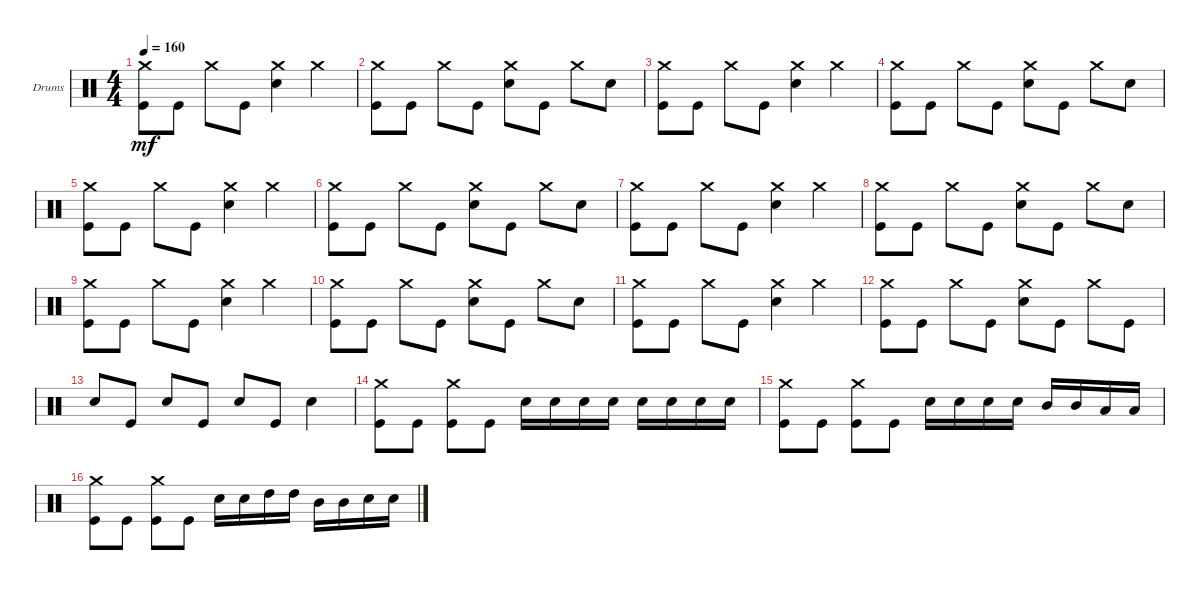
\bracketExtendMode groupsimilarinstruments
\firstSystemTrackNameOrientation horizontal
\otherSystemsTrackNameOrientation horizontal
\track ("Drums" "Drums") {instrument percussion}
\staff {score}
\articulation defaults
\ts (4 4)
\tempo 160
\clef neutral
\ks c
("Kick (hit)" "Crash medium (hit)").8{dy mf} "Kick (hit)".8 "Crash medium (hit)".8 "Kick (hit)".8 ("Snare (hit) 2" "Crash medium (hit)").4 "Crash medium (hit)".4 |
("Kick (hit)" "Crash medium (hit)").8 "Kick (hit)".8 "Crash medium (hit)".8 "Kick (hit)".8 ("Snare (hit) 2" "Crash medium (hit)").8 "Kick (hit)".8 "Crash medium (hit)".8 "Snare (hit) 2".8 |
("Kick (hit)" "Crash medium (hit)").8 "Kick (hit)".8 "Crash medium (hit)".8 "Kick (hit)".8 ("Snare (hit) 2" "Crash medium (hit)").4 "Crash medium (hit)".4 |
("Kick (hit)" "Crash medium (hit)").8 "Kick (hit)".8 "Crash medium (hit)".8 "Kick (hit)".8 ("Snare (hit) 2" "Crash medium (hit)").8 "Kick (hit)".8 "Crash medium (hit)".8 "Snare (hit) 2".8 |
("Kick (hit)" "Crash medium (hit)").8 "Kick (hit)".8 "Crash medium (hit)".8 "Kick (hit)".8 ("Snare (hit) 2" "Crash medium (hit)").4 "Crash medium (hit)".4 |
("Kick (hit)" "Crash medium (hit)").8 "Kick (hit)".8 "Crash medium (hit)".8 "Kick (hit)".8 ("Snare (hit) 2" "Crash medium (hit)").8 "Kick (hit)".8 "Crash medium (hit)".8 "Snare (hit) 2".8 |
("Kick (hit)" "Crash medium (hit)").8 "Kick (hit)".8 "Crash medium (hit)".8 "Kick (hit)".8 ("Snare (hit) 2" "Crash medium (hit)").4 "Crash medium (hit)".4 |
("Kick (hit)" "Crash medium (hit)").8 "Kick (hit)".8 "Crash medium (hit)".8 "Kick (hit)".8 ("Snare (hit) 2" "Crash medium (hit)").8 "Kick (hit)".8 "Crash medium (hit)".8 "Snare (hit) 2".8 |
("Kick (hit)" "Crash medium (hit)").8 "Kick (hit)".8 "Crash medium (hit)".8 "Kick (hit)".8 ("Snare (hit) 2" "Crash medium (hit)").4 "Crash medium (hit)".4 |
("Kick (hit)" "Crash medium (hit)").8 "Kick (hit)".8 "Crash medium (hit)".8 "Kick (hit)".8 ("Snare (hit) 2" "Crash medium (hit)").8 "Kick (hit)".8 "Crash medium (hit)".8 "Snare (hit) 2".8 |
("Kick (hit)" "Crash medium (hit)").8 "Kick (hit)".8 "Crash medium (hit)".8 "Kick (hit)".8 ("Snare (hit) 2" "Crash medium (hit)").4 "Crash medium (hit)".4 |
("Kick (hit)" "Crash medium (hit)").8 "Kick (hit)".8 "Crash medium (hit)".8 "Kick (hit)".8 ("Snare (hit) 2" "Crash medium (hit)").8 "Kick (hit)".8 "Crash medium (hit)".8 "Kick (hit)".8 |
"Snare (hit) 2".8 "Kick (hit)".8 "Snare (hit) 2".8 "Kick (hit)".8 "Snare (hit) 2".8 "Kick (hit)".8 "Snare (hit) 2".4 |
("Kick (hit)" "Crash medium (hit)").8 "Kick (hit)".8 ("Kick (hit)" "Crash medium (hit)").8 "Kick (hit)".8 "Snare (hit) 2".16 "Snare (hit) 2".16 "Snare (hit) 2".16 "Snare (hit) 2".16 "Snare (hit) 2".16 "Snare (hit) 2".16 "Snare (hit) 2".16 "Snare (hit) 2".16 |
("Kick (hit)" "Crash medium (hit)").8 "Kick (hit)".8 ("Kick (hit)" "Crash medium (hit)").8 "Kick (hit)".8 "Snare (hit) 2".16 "Snare (hit) 2".16 "Snare (hit) 2".16 "Snare (hit) 2".16 "Mid Tom (hit)".16 "Mid Tom (hit)".16 "Low Tom (hit)".16 "Low Tom (hit)".16 |
("Kick (hit)" "Crash medium (hit)").8 "Kick (hit)".8 ("Kick (hit)" "Crash medium (hit)").8 "Kick (hit)".8 "Snare (hit) 2".16 "Snare (hit) 2".16 "High Tom (hit)".16 "High Tom (hit)".16 "Mid Tom (hit)".16 "Mid Tom (hit)".16 "Snare (hit) 2".16 "Snare (hit) 2".16
